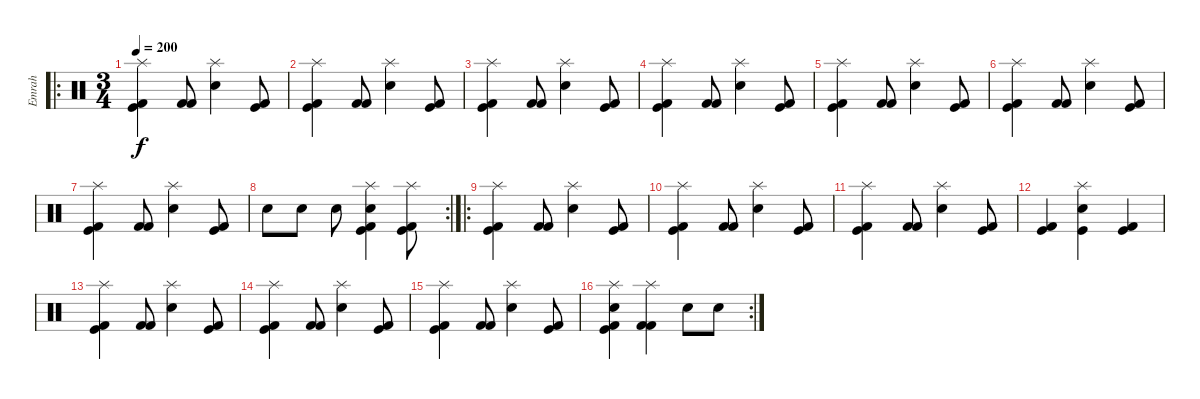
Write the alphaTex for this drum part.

\track ("Emrah" "Emrah") {instrument percussion}
\staff {score}
\articulation defaults
\ro
\ts (3 4)
\tempo 200
\clef neutral
\ks c
("Splash (hit)" "Kick (hit)" "Kick (hit) 2").4{dy f} ("Kick (hit) 2" "Kick (hit) 2").8 ("Splash (hit)" "Snare (hit) 2").4 ("Kick (hit)" "Kick (hit) 2").8 |
("Splash (hit)" "Kick (hit)" "Kick (hit) 2").4 ("Kick (hit) 2" "Kick (hit) 2").8 ("Splash (hit)" "Snare (hit) 2").4 ("Kick (hit)" "Kick (hit) 2").8 |
("Splash (hit)" "Kick (hit)" "Kick (hit) 2").4 ("Kick (hit) 2" "Kick (hit) 2").8 ("Splash (hit)" "Snare (hit) 2").4 ("Kick (hit)" "Kick (hit) 2").8 |
("Splash (hit)" "Kick (hit)" "Kick (hit) 2").4 ("Kick (hit) 2" "Kick (hit) 2").8 ("Splash (hit)" "Snare (hit) 2").4 ("Kick (hit)" "Kick (hit) 2").8 |
("Splash (hit)" "Kick (hit)" "Kick (hit) 2").4 ("Kick (hit) 2" "Kick (hit) 2").8 ("Splash (hit)" "Snare (hit) 2").4 ("Kick (hit)" "Kick (hit) 2").8 |
("Splash (hit)" "Kick (hit)" "Kick (hit) 2").4 ("Kick (hit) 2" "Kick (hit) 2").8 ("Splash (hit)" "Snare (hit) 2").4 ("Kick (hit)" "Kick (hit) 2").8 |
("Splash (hit)" "Kick (hit)" "Kick (hit) 2").4 ("Kick (hit) 2" "Kick (hit) 2").8 ("Splash (hit)" "Snare (hit) 2").4 ("Kick (hit)" "Kick (hit) 2").8 |
\rc 2 "Snare (hit) 2".8 "Snare (hit) 2".8 "Snare (hit) 2".8
("Splash (hit)" "Snare (hit) 2" "Kick (hit)" "Kick (hit) 2").4 ("Splash (hit)" "Kick (hit)" "Kick (hit) 2").8 |
\ro
("Splash (hit)" "Kick (hit)" "Kick (hit) 2").4 ("Kick (hit) 2" "Kick (hit) 2").8 ("Splash (hit)" "Snare (hit) 2").4 ("Kick (hit)" "Kick (hit) 2").8 |
("Splash (hit)" "Kick (hit)" "Kick (hit) 2").4 ("Kick (hit) 2" "Kick (hit) 2").8 ("Splash (hit)" "Snare (hit) 2").4 ("Kick (hit)" "Kick (hit) 2").8 |
("Splash (hit)" "Kick (hit)" "Kick (hit) 2").4 ("Kick (hit) 2" "Kick (hit) 2").8 ("Splash (hit)" "Snare (hit) 2").4 ("Kick (hit)" "Kick (hit) 2").8 |
("Kick (hit)" "Kick (hit) 2").4 ("Splash (hit)" "Snare (hit) 2" "Kick (hit)").4 ("Kick (hit)" "Kick (hit) 2").4 |
("Splash (hit)" "Kick (hit)" "Kick (hit) 2").4 ("Kick (hit) 2" "Kick (hit) 2").8 ("Splash (hit)" "Snare (hit) 2").4 ("Kick (hit)" "Kick (hit) 2").8 |
("Splash (hit)" "Kick (hit)" "Kick (hit) 2").4 ("Kick (hit) 2" "Kick (hit) 2").8 ("Splash (hit)" "Snare (hit) 2").4 ("Kick (hit)" "Kick (hit) 2").8 |
("Splash (hit)" "Kick (hit)" "Kick (hit) 2").4 ("Kick (hit) 2" "Kick (hit) 2").8 ("Splash (hit)" "Snare (hit) 2").4 ("Kick (hit)" "Kick (hit) 2").8 |
\rc 2
("Splash (hit)" "Snare (hit) 2" "Kick (hit)" "Kick (hit) 2").4 ("Splash (hit)" "Kick (hit) 2" "Kick (hit) 2").4 "Snare (hit) 2".8 "Snare (hit) 2".8
